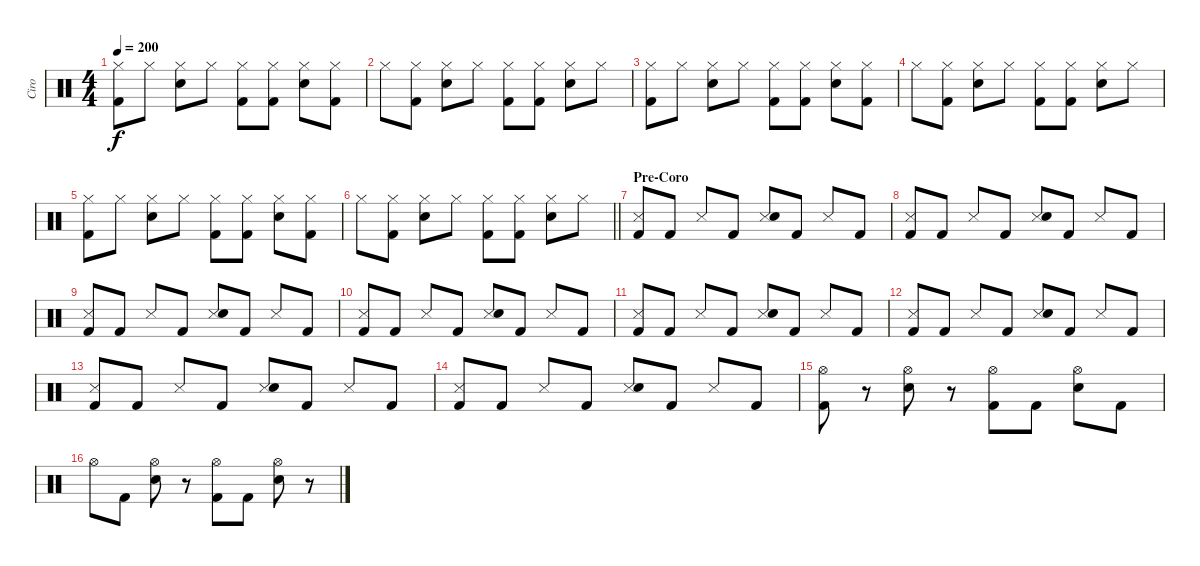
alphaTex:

\track ("Ciro" "Ciro") {instrument percussion}
\staff {score}
\articulation defaults
\ts (4 4)
\tempo 200
\clef neutral
\ks c
("Hi-Hat (closed)" "Kick (hit) 2").8{dy f} "Hi-Hat (closed)".8 ("Hi-Hat (closed)" "Snare (hit) 2").8 "Hi-Hat (closed)".8 ("Hi-Hat (closed)" "Kick (hit) 2").8 ("Hi-Hat (closed)" "Kick (hit) 2").8 ("Hi-Hat (closed)" "Snare (hit) 2").8 ("Hi-Hat (closed)" "Kick (hit) 2").8 |
"Hi-Hat (closed)".8 ("Hi-Hat (closed)" "Kick (hit) 2").8 ("Hi-Hat (closed)" "Snare (hit) 2").8 "Hi-Hat (closed)".8 ("Hi-Hat (closed)" "Kick (hit) 2").8 ("Hi-Hat (closed)" "Kick (hit) 2").8 ("Hi-Hat (closed)" "Snare (hit) 2").8 "Hi-Hat (closed)".8 |
("Hi-Hat (closed)" "Kick (hit) 2").8 "Hi-Hat (closed)".8 ("Hi-Hat (closed)" "Snare (hit) 2").8 "Hi-Hat (closed)".8 ("Hi-Hat (closed)" "Kick (hit) 2").8 ("Hi-Hat (closed)" "Kick (hit) 2").8 ("Hi-Hat (closed)" "Snare (hit) 2").8 ("Hi-Hat (closed)" "Kick (hit) 2").8 |
"Hi-Hat (closed)".8 ("Hi-Hat (closed)" "Kick (hit) 2").8 ("Hi-Hat (closed)" "Snare (hit) 2").8 "Hi-Hat (closed)".8 ("Hi-Hat (closed)" "Kick (hit) 2").8 ("Hi-Hat (closed)" "Kick (hit) 2").8 ("Hi-Hat (closed)" "Snare (hit) 2").8 "Hi-Hat (closed)".8 |
("Hi-Hat (closed)" "Kick (hit) 2").8 "Hi-Hat (closed)".8 ("Hi-Hat (closed)" "Snare (hit) 2").8 "Hi-Hat (closed)".8 ("Hi-Hat (closed)" "Kick (hit) 2").8 ("Hi-Hat (closed)" "Kick (hit) 2").8 ("Hi-Hat (closed)" "Snare (hit) 2").8 ("Hi-Hat (closed)" "Kick (hit) 2").8 |
\barLineRight lightlight "Hi-Hat (closed)".8
("Hi-Hat (closed)" "Kick (hit) 2").8 ("Hi-Hat (closed)" "Snare (hit) 2").8 "Hi-Hat (closed)".8 ("Hi-Hat (closed)" "Kick (hit) 2").8 ("Hi-Hat (closed)" "Kick (hit) 2").8 ("Hi-Hat (closed)" "Snare (hit) 2").8 "Hi-Hat (closed)".8 |
\section ("" "Pre-Coro")
("Metronome (hit)" "Kick (hit) 2").8 "Kick (hit) 2".8 "Metronome (hit)".8 "Kick (hit) 2".8 ("Metronome (hit)" "Snare (hit) 2").8 "Kick (hit) 2".8 "Metronome (hit)".8 "Kick (hit) 2".8 |
("Metronome (hit)" "Kick (hit) 2").8 "Kick (hit) 2".8 "Metronome (hit)".8 "Kick (hit) 2".8 ("Metronome (hit)" "Snare (hit) 2").8 "Kick (hit) 2".8 "Metronome (hit)".8 "Kick (hit) 2".8 |
("Metronome (hit)" "Kick (hit) 2").8 "Kick (hit) 2".8 "Metronome (hit)".8 "Kick (hit) 2".8 ("Metronome (hit)" "Snare (hit) 2").8 "Kick (hit) 2".8 "Metronome (hit)".8 "Kick (hit) 2".8 |
("Metronome (hit)" "Kick (hit) 2").8 "Kick (hit) 2".8 "Metronome (hit)".8 "Kick (hit) 2".8 ("Metronome (hit)" "Snare (hit) 2").8 "Kick (hit) 2".8 "Metronome (hit)".8 "Kick (hit) 2".8 |
("Metronome (hit)" "Kick (hit) 2").8 "Kick (hit) 2".8 "Metronome (hit)".8 "Kick (hit) 2".8 ("Metronome (hit)" "Snare (hit) 2").8 "Kick (hit) 2".8 "Metronome (hit)".8 "Kick (hit) 2".8 |
("Metronome (hit)" "Kick (hit) 2").8 "Kick (hit) 2".8 "Metronome (hit)".8 "Kick (hit) 2".8 ("Metronome (hit)" "Snare (hit) 2").8 "Kick (hit) 2".8 "Metronome (hit)".8 "Kick (hit) 2".8 |
("Metronome (hit)" "Kick (hit) 2").8 "Kick (hit) 2".8 "Metronome (hit)".8 "Kick (hit) 2".8 ("Metronome (hit)" "Snare (hit) 2").8 "Kick (hit) 2".8 "Metronome (hit)".8 "Kick (hit) 2".8 |
("Metronome (hit)" "Kick (hit) 2").8 "Kick (hit) 2".8 "Metronome (hit)".8 "Kick (hit) 2".8 ("Metronome (hit)" "Snare (hit) 2").8 "Kick (hit) 2".8 "Metronome (hit)".8 "Kick (hit) 2".8 |
("Hi-Hat (open)" "Kick (hit) 2").8 r.8 ("Hi-Hat (open)" "Snare (hit) 2").8 r.8 ("Hi-Hat (open)" "Kick (hit) 2").8 "Kick (hit) 2".8 ("Hi-Hat (open)" "Snare (hit) 2").8 "Kick (hit) 2".8 |
"Hi-Hat (open)".8 "Kick (hit) 2".8 ("Hi-Hat (open)" "Snare (hit) 2").8 r.8 ("Hi-Hat (open)" "Kick (hit) 2").8 "Kick (hit) 2".8 ("Hi-Hat (open)" "Snare (hit) 2").8 r.8
